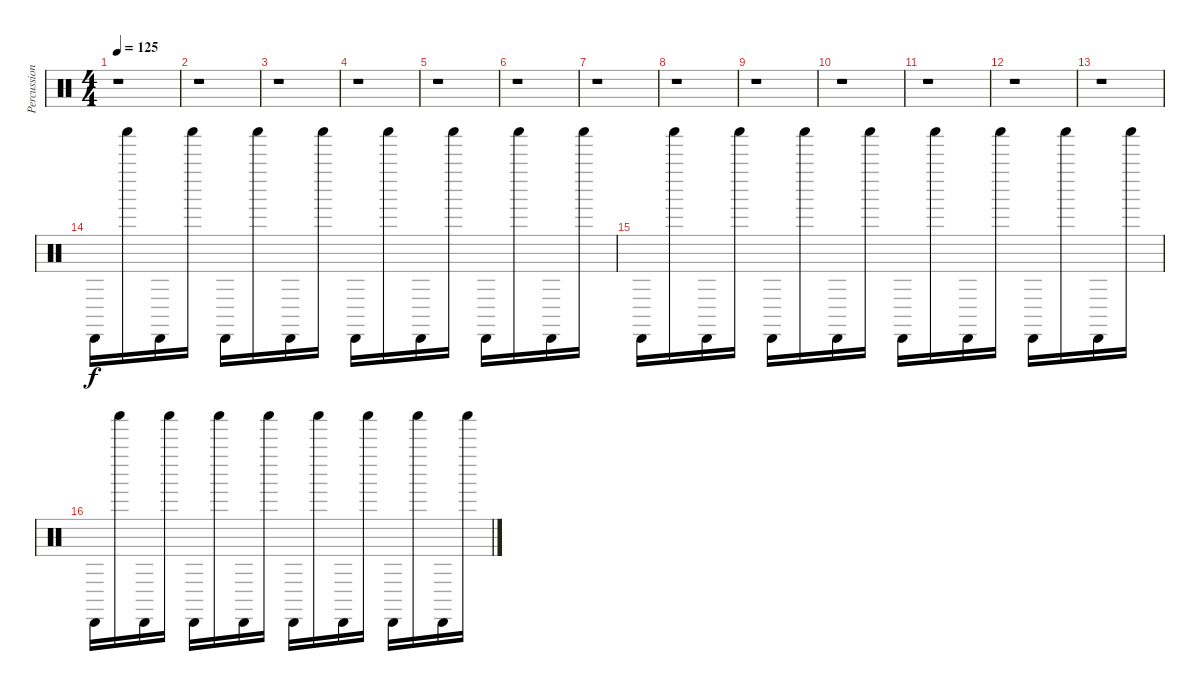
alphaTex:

\track ("Percussion" "Percussion") {instrument percussion}
\staff {score}
\articulation defaults
\ts (4 4)
\tempo 125
\clef neutral
\ks c
r.1{dy f} |
r.1 |
r.1 |
r.1 |
r.1 |
r.1 |
r.1 |
r.1 |
r.1 |
r.1 |
r.1 |
r.1 |
r.1 |
"Cabasa (hit)".16 "Shaker (hit)".16 "Cabasa (hit)".16 "Shaker (hit)".16 "Cabasa (hit)".16 "Shaker (hit)".16 "Cabasa (hit)".16 "Shaker (hit)".16 "Cabasa (hit)".16 "Shaker (hit)".16 "Cabasa (hit)".16 "Shaker (hit)".16 "Cabasa (hit)".16 "Shaker (hit)".16 "Cabasa (hit)".16 "Shaker (hit)".16 |
"Cabasa (hit)".16 "Shaker (hit)".16 "Cabasa (hit)".16 "Shaker (hit)".16 "Cabasa (hit)".16 "Shaker (hit)".16 "Cabasa (hit)".16 "Shaker (hit)".16 "Cabasa (hit)".16 "Shaker (hit)".16 "Cabasa (hit)".16 "Shaker (hit)".16 "Cabasa (hit)".16 "Shaker (hit)".16 "Cabasa (hit)".16 "Shaker (hit)".16 |
"Cabasa (hit)".16 "Shaker (hit)".16 "Cabasa (hit)".16 "Shaker (hit)".16 "Cabasa (hit)".16 "Shaker (hit)".16 "Cabasa (hit)".16 "Shaker (hit)".16 "Cabasa (hit)".16 "Shaker (hit)".16 "Cabasa (hit)".16 "Shaker (hit)".16 "Cabasa (hit)".16 "Shaker (hit)".16 "Cabasa (hit)".16 "Shaker (hit)".16
